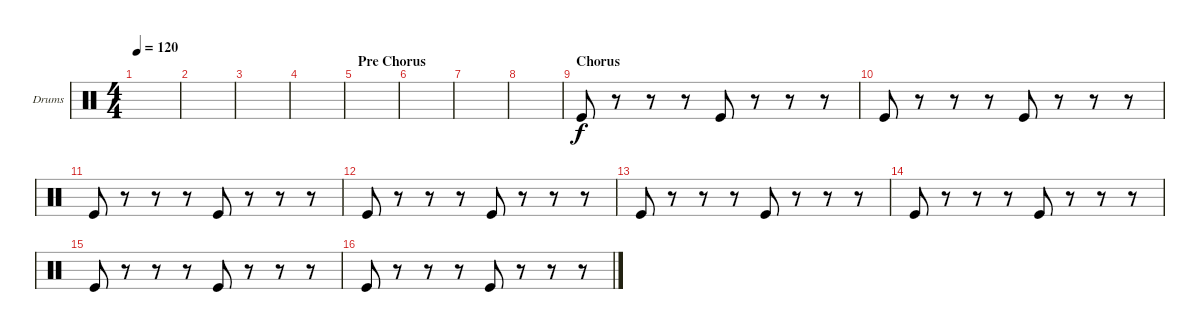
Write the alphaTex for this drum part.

\defaultSystemsLayout 4
\bracketExtendMode groupsimilarinstruments
\firstSystemTrackNameOrientation horizontal
\otherSystemsTrackNameOrientation horizontal
\track ("Cajon (Drum Box)" "Drums") {instrument percussion}
\staff {score}
\articulation defaults
\ts (4 4)
\tempo 120
\clef neutral
\scale
0.333333
\ks c
|
\scale
0.333333 |
\scale
0.333333 |
\scale
0.333333 |
\section ("" "Pre Chorus")
\scale
0.333333 |
\scale
0.333333 |
\scale
0.333333 |
\scale
0.333333 |
\section ("" "Chorus")
\scale
0.333333 "Kick (hit)".8 r.8 r.8 r.8 "Kick (hit)".8 r.8 r.8 r.8 |
\scale
0.333333 "Kick (hit)".8 r.8 r.8 r.8 "Kick (hit)".8 r.8 r.8 r.8 |
\scale
0.333333 "Kick (hit)".8 r.8 r.8 r.8 "Kick (hit)".8 r.8 r.8 r.8 |
\scale
0.333333 "Kick (hit)".8 r.8 r.8 r.8 "Kick (hit)".8 r.8 r.8 r.8 |
\scale
0.333333 "Kick (hit)".8 r.8 r.8 r.8 "Kick (hit)".8 r.8 r.8 r.8 |
\scale
0.333333 "Kick (hit)".8 r.8 r.8 r.8 "Kick (hit)".8 r.8 r.8 r.8 |
"Kick (hit)".8 r.8 r.8 r.8 "Kick (hit)".8 r.8 r.8 r.8 |
"Kick (hit)".8 r.8 r.8 r.8 "Kick (hit)".8 r.8 r.8 r.8
